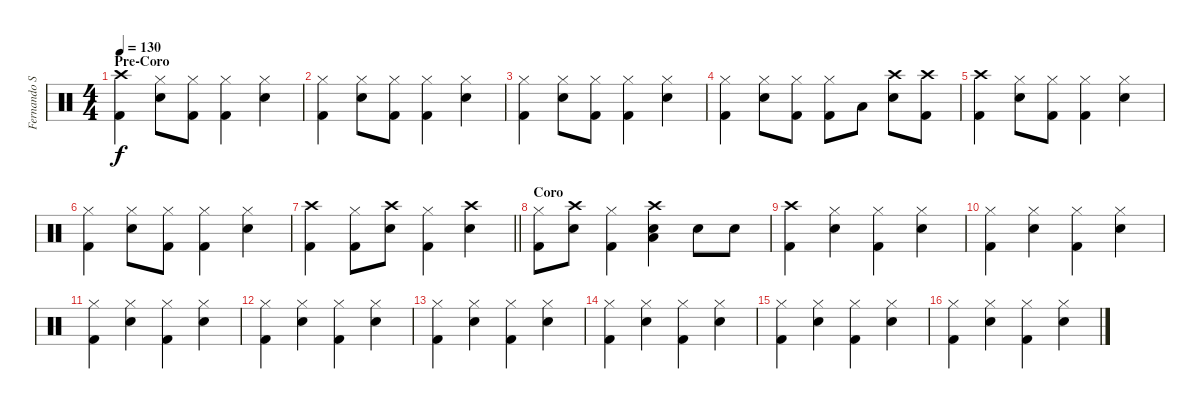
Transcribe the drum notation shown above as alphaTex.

\track ("Fernando Scarcella" "Fernando S") {instrument percussion}
\staff {score}
\articulation defaults
\ts (4 4)
\section ("" "Pre-Coro")
\tempo 130
\clef neutral
\ks c
("Crash high (hit)" "Kick (hit) 2").4{dy f} ("Hi-Hat (closed)" "Snare (hit) 2").8 ("Hi-Hat (closed)" "Kick (hit) 2").8 ("Hi-Hat (closed)" "Kick (hit) 2").4 ("Hi-Hat (closed)" "Snare (hit) 2").4 |
("Hi-Hat (closed)" "Kick (hit) 2").4 ("Hi-Hat (closed)" "Snare (hit) 2").8 ("Hi-Hat (closed)" "Kick (hit) 2").8 ("Hi-Hat (closed)" "Kick (hit) 2").4 ("Hi-Hat (closed)" "Snare (hit) 2").4 |
("Hi-Hat (closed)" "Kick (hit) 2").4 ("Hi-Hat (closed)" "Snare (hit) 2").8 ("Hi-Hat (closed)" "Kick (hit) 2").8 ("Hi-Hat (closed)" "Kick (hit) 2").4 ("Hi-Hat (closed)" "Snare (hit) 2").4 |
("Hi-Hat (closed)" "Kick (hit) 2").4 ("Hi-Hat (closed)" "Snare (hit) 2").8 ("Hi-Hat (closed)" "Kick (hit) 2").8 ("Hi-Hat (closed)" "Kick (hit) 2").8 "Low Tom (hit)".8 ("Crash high (hit)" "Snare (hit) 2").8 ("Crash high (hit)" "Kick (hit) 2").8 |
("Crash high (hit)" "Kick (hit) 2").4 ("Hi-Hat (closed)" "Snare (hit) 2").8 ("Hi-Hat (closed)" "Kick (hit) 2").8 ("Hi-Hat (closed)" "Kick (hit) 2").4 ("Hi-Hat (closed)" "Snare (hit) 2").4 |
("Hi-Hat (closed)" "Kick (hit) 2").4 ("Hi-Hat (closed)" "Snare (hit) 2").8 ("Hi-Hat (closed)" "Kick (hit) 2").8 ("Hi-Hat (closed)" "Kick (hit) 2").4 ("Hi-Hat (closed)" "Snare (hit) 2").4 |
\barLineRight lightlight
("Crash high (hit)" "Kick (hit) 2").4 ("Hi-Hat (closed)" "Kick (hit) 2").8 ("Crash high (hit)" "Snare (hit) 2").8 ("Hi-Hat (closed)" "Kick (hit) 2").4 ("Crash high (hit)" "Snare (hit) 2").4 |
\section ("" "Coro")
("Hi-Hat (closed)" "Kick (hit) 2").8 ("Crash high (hit)" "Snare (hit) 2").8 ("Hi-Hat (closed)" "Kick (hit) 2").4 ("Crash high (hit)" "Snare (hit) 2" "Low Tom (hit)").4 "Snare (hit) 2".8 "Snare (hit) 2".8 |
("Crash high (hit)" "Kick (hit) 2").4 ("Hi-Hat (closed)" "Snare (hit) 2").4 ("Hi-Hat (closed)" "Kick (hit) 2").4 ("Hi-Hat (closed)" "Snare (hit) 2").4 |
("Hi-Hat (closed)" "Kick (hit) 2").4 ("Hi-Hat (closed)" "Snare (hit) 2").4 ("Hi-Hat (closed)" "Kick (hit) 2").4 ("Hi-Hat (closed)" "Snare (hit) 2").4 |
("Hi-Hat (closed)" "Kick (hit) 2").4 ("Hi-Hat (closed)" "Snare (hit) 2").4 ("Hi-Hat (closed)" "Kick (hit) 2").4 ("Hi-Hat (closed)" "Snare (hit) 2").4 |
("Hi-Hat (closed)" "Kick (hit) 2").4 ("Hi-Hat (closed)" "Snare (hit) 2").4 ("Hi-Hat (closed)" "Kick (hit) 2").4 ("Hi-Hat (closed)" "Snare (hit) 2").4 |
("Hi-Hat (closed)" "Kick (hit) 2").4 ("Hi-Hat (closed)" "Snare (hit) 2").4 ("Hi-Hat (closed)" "Kick (hit) 2").4 ("Hi-Hat (closed)" "Snare (hit) 2").4 |
("Hi-Hat (closed)" "Kick (hit) 2").4 ("Hi-Hat (closed)" "Snare (hit) 2").4 ("Hi-Hat (closed)" "Kick (hit) 2").4 ("Hi-Hat (closed)" "Snare (hit) 2").4 |
("Hi-Hat (closed)" "Kick (hit) 2").4 ("Hi-Hat (closed)" "Snare (hit) 2").4 ("Hi-Hat (closed)" "Kick (hit) 2").4 ("Hi-Hat (closed)" "Snare (hit) 2").4 |
("Hi-Hat (closed)" "Kick (hit) 2").4 ("Hi-Hat (closed)" "Snare (hit) 2").4 ("Hi-Hat (closed)" "Kick (hit) 2").4 ("Hi-Hat (closed)" "Snare (hit) 2").4
